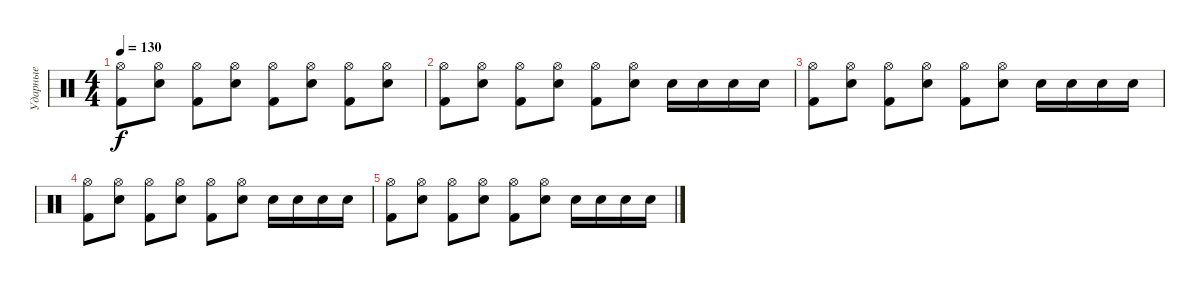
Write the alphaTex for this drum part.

\track ("Ударные" "Ударные") {instrument percussion}
\staff {score}
\articulation defaults
\ts (4 4)
\tempo 130
\clef neutral
\ks c
("Hi-Hat (open)" "Kick (hit) 2").8{dy f} ("Hi-Hat (open)" "Electric Snare (hit)").8 ("Hi-Hat (open)" "Kick (hit) 2").8 ("Hi-Hat (open)" "Electric Snare (hit)").8 ("Hi-Hat (open)" "Kick (hit) 2").8 ("Hi-Hat (open)" "Electric Snare (hit)").8 ("Hi-Hat (open)" "Kick (hit) 2").8 ("Hi-Hat (open)" "Electric Snare (hit)").8 |
("Hi-Hat (open)" "Kick (hit) 2").8 ("Hi-Hat (open)" "Electric Snare (hit)").8 ("Hi-Hat (open)" "Kick (hit) 2").8 ("Hi-Hat (open)" "Electric Snare (hit)").8 ("Hi-Hat (open)" "Kick (hit) 2").8 ("Hi-Hat (open)" "Electric Snare (hit)").8 "Electric Snare (hit)".16 "Electric Snare (hit)".16 "Electric Snare (hit)".16 "Electric Snare (hit)".16 |
("Hi-Hat (open)" "Kick (hit) 2").8 ("Hi-Hat (open)" "Electric Snare (hit)").8 ("Hi-Hat (open)" "Kick (hit) 2").8 ("Hi-Hat (open)" "Electric Snare (hit)").8 ("Hi-Hat (open)" "Kick (hit) 2").8 ("Hi-Hat (open)" "Electric Snare (hit)").8 "Electric Snare (hit)".16 "Electric Snare (hit)".16 "Electric Snare (hit)".16 "Electric Snare (hit)".16 |
("Hi-Hat (open)" "Kick (hit) 2").8 ("Hi-Hat (open)" "Electric Snare (hit)").8 ("Hi-Hat (open)" "Kick (hit) 2").8 ("Hi-Hat (open)" "Electric Snare (hit)").8 ("Hi-Hat (open)" "Kick (hit) 2").8 ("Hi-Hat (open)" "Electric Snare (hit)").8 "Electric Snare (hit)".16 "Electric Snare (hit)".16 "Electric Snare (hit)".16 "Electric Snare (hit)".16 |
("Hi-Hat (open)" "Kick (hit) 2").8 ("Hi-Hat (open)" "Electric Snare (hit)").8 ("Hi-Hat (open)" "Kick (hit) 2").8 ("Hi-Hat (open)" "Electric Snare (hit)").8 ("Hi-Hat (open)" "Kick (hit) 2").8 ("Hi-Hat (open)" "Electric Snare (hit)").8 "Electric Snare (hit)".16 "Electric Snare (hit)".16 "Electric Snare (hit)".16 "Electric Snare (hit)".16
